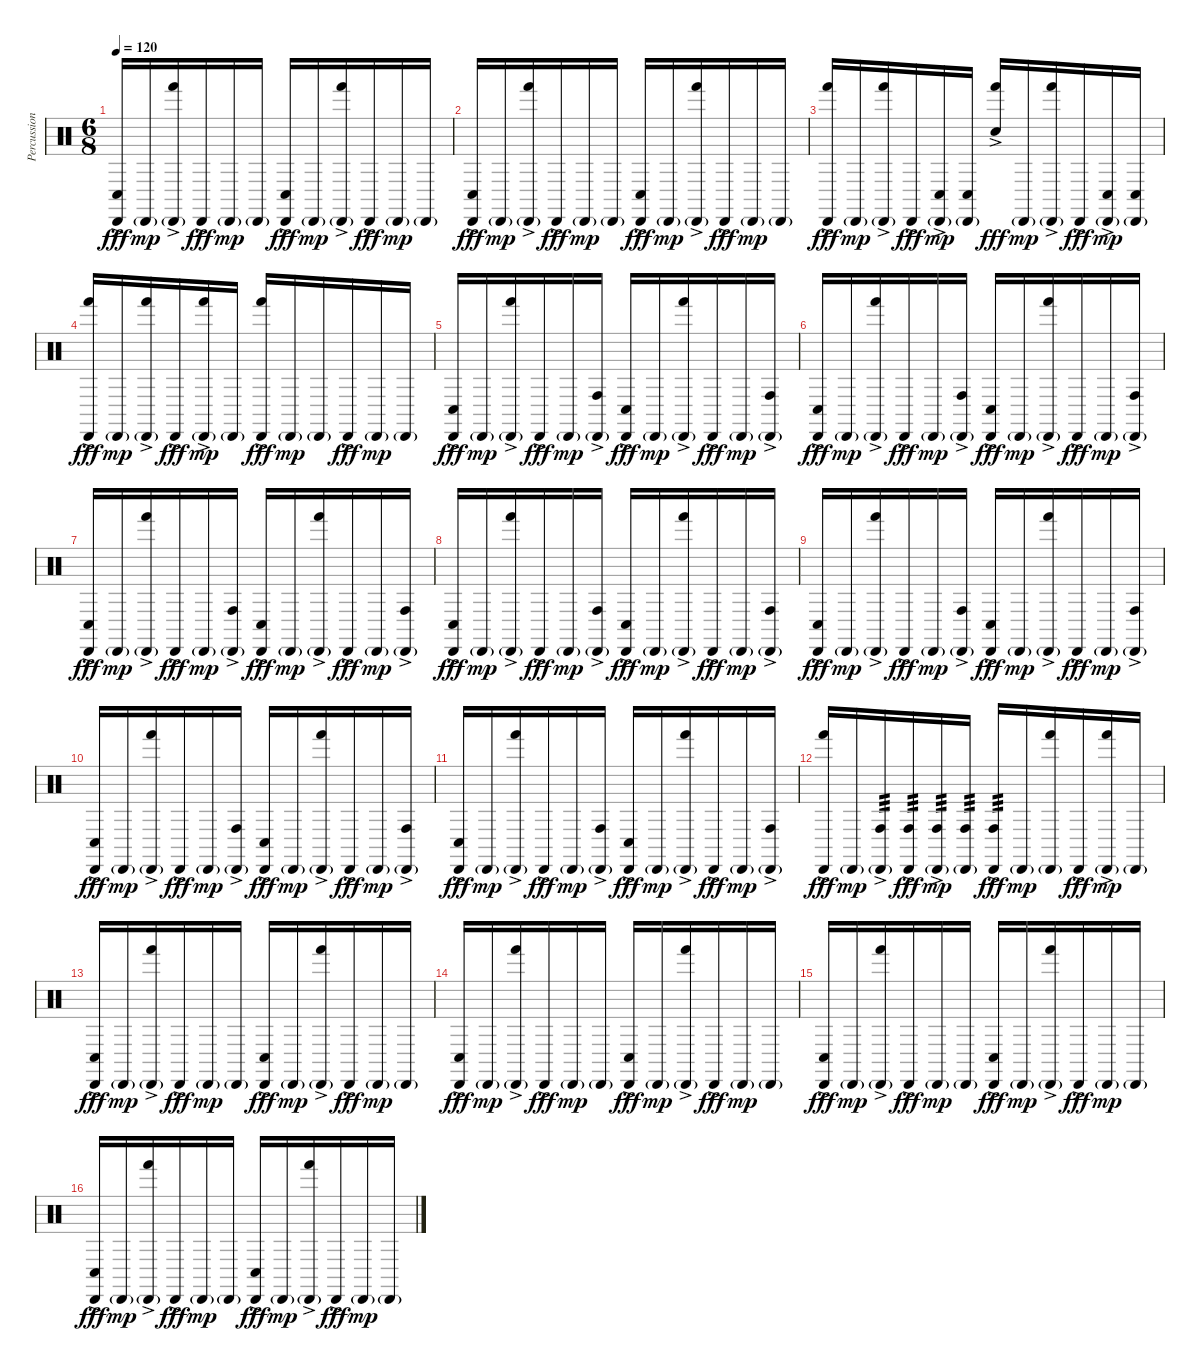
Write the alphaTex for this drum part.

\track ("Percussion" "Percussion") {instrument percussion}
\staff {score}
\articulation defaults
\ts (6 8)
\tempo 120
\clef neutral
\ks c
("Conga low (hit)"{ac} "Cabasa (hit)"{ac}).16{dy fff} "Cabasa (hit)"{g}.16{dy mp} ("Hand (hit)"{ac} "Cabasa (hit)"{g}).16 "Cabasa (hit)"{ac}.16{dy fff} "Cabasa (hit)"{g}.16{dy mp} "Cabasa (hit)"{g}.16 ("Conga low (hit)"{ac} "Cabasa (hit)"{ac}).16{dy fff} "Cabasa (hit)"{g}.16{dy mp} ("Hand (hit)"{ac} "Cabasa (hit)"{g}).16 "Cabasa (hit)"{ac}.16{dy fff} "Cabasa (hit)"{g}.16{dy mp} "Cabasa (hit)"{g}.16 |
("Conga low (hit)"{ac} "Cabasa (hit)"{ac}).16{dy fff} "Cabasa (hit)"{g}.16{dy mp} ("Hand (hit)"{ac} "Cabasa (hit)"{g}).16 "Cabasa (hit)"{ac}.16{dy fff} "Cabasa (hit)"{g}.16{dy mp} "Cabasa (hit)"{g}.16 ("Conga low (hit)"{ac} "Cabasa (hit)"{ac}).16{dy fff} "Cabasa (hit)"{g}.16{dy mp} ("Hand (hit)"{ac} "Cabasa (hit)"{g}).16 "Cabasa (hit)"{ac}.16{dy fff} "Cabasa (hit)"{g}.16{dy mp} "Cabasa (hit)"{g}.16 |
("Hand (hit)"{ac} "Cabasa (hit)"{ac}).16{dy fff} "Cabasa (hit)"{g}.16{dy mp} ("Hand (hit)"{ac} "Cabasa (hit)"{g}).16 "Cabasa (hit)"{ac}.16{dy fff} ("Conga low (hit)"{ac} "Cabasa (hit)"{g}).16{dy mp} ("Conga low (hit)" "Cabasa (hit)"{g}).16 ("Hand (hit)"{ac} "Snare (hit)"{ac}).16{dy fff} "Cabasa (hit)"{g}.16{dy mp} ("Hand (hit)"{ac} "Cabasa (hit)"{g}).16 "Cabasa (hit)"{ac}.16{dy fff} ("Conga low (hit)"{ac} "Cabasa (hit)"{g}).16{dy mp} ("Conga low (hit)" "Cabasa (hit)"{g}).16 |
("Hand (hit)"{ac} "Cabasa (hit)"{ac}).16{dy fff} "Cabasa (hit)"{g}.16{dy mp} ("Hand (hit)"{ac} "Cabasa (hit)"{g}).16 "Cabasa (hit)"{ac}.16{dy fff} ("Hand (hit)"{ac} "Cabasa (hit)"{g}).16{dy mp} "Cabasa (hit)"{g}.16 ("Hand (hit)"{ac} "Cabasa (hit)"{ac}).16{dy fff} "Cabasa (hit)"{g}.16{dy mp} "Cabasa (hit)"{g}.16 "Cabasa (hit)"{ac}.16{dy fff} "Cabasa (hit)"{g}.16{dy mp} "Cabasa (hit)"{g}.16 |
("Conga low (hit)"{ac} "Cabasa (hit)"{ac}).16{dy fff} "Cabasa (hit)"{g}.16{dy mp} ("Hand (hit)"{ac} "Cabasa (hit)"{g}).16 "Cabasa (hit)"{ac}.16{dy fff} "Cabasa (hit)"{g}.16{dy mp} ("Conga high (hit)"{ac} "Cabasa (hit)"{g}).16 ("Conga low (hit)"{ac} "Cabasa (hit)"{ac}).16{dy fff} "Cabasa (hit)"{g}.16{dy mp} ("Hand (hit)"{ac} "Cabasa (hit)"{g}).16 "Cabasa (hit)"{ac}.16{dy fff} "Cabasa (hit)"{g}.16{dy mp} ("Conga high (hit)"{ac} "Cabasa (hit)"{g}).16 |
("Conga low (hit)"{ac} "Cabasa (hit)"{ac}).16{dy fff} "Cabasa (hit)"{g}.16{dy mp} ("Hand (hit)"{ac} "Cabasa (hit)"{g}).16 "Cabasa (hit)"{ac}.16{dy fff} "Cabasa (hit)"{g}.16{dy mp} ("Conga high (hit)"{ac} "Cabasa (hit)"{g}).16 ("Conga low (hit)"{ac} "Cabasa (hit)"{ac}).16{dy fff} "Cabasa (hit)"{g}.16{dy mp} ("Hand (hit)"{ac} "Cabasa (hit)"{g}).16 "Cabasa (hit)"{ac}.16{dy fff} "Cabasa (hit)"{g}.16{dy mp} ("Conga high (hit)"{ac} "Cabasa (hit)"{g}).16 |
("Conga low (hit)"{ac} "Cabasa (hit)"{ac}).16{dy fff} "Cabasa (hit)"{g}.16{dy mp} ("Hand (hit)"{ac} "Cabasa (hit)"{g}).16 "Cabasa (hit)"{ac}.16{dy fff} "Cabasa (hit)"{g}.16{dy mp} ("Conga high (hit)"{ac} "Cabasa (hit)"{g}).16 ("Conga low (hit)"{ac} "Cabasa (hit)"{ac}).16{dy fff} "Cabasa (hit)"{g}.16{dy mp} ("Hand (hit)"{ac} "Cabasa (hit)"{g}).16 "Cabasa (hit)"{ac}.16{dy fff} "Cabasa (hit)"{g}.16{dy mp} ("Conga high (hit)"{ac} "Cabasa (hit)"{g}).16 |
("Conga low (hit)"{ac} "Cabasa (hit)"{ac}).16{dy fff} "Cabasa (hit)"{g}.16{dy mp} ("Hand (hit)"{ac} "Cabasa (hit)"{g}).16 "Cabasa (hit)"{ac}.16{dy fff} "Cabasa (hit)"{g}.16{dy mp} ("Conga high (hit)"{ac} "Cabasa (hit)"{g}).16 ("Conga low (hit)"{ac} "Cabasa (hit)"{ac}).16{dy fff} "Cabasa (hit)"{g}.16{dy mp} ("Hand (hit)"{ac} "Cabasa (hit)"{g}).16 "Cabasa (hit)"{ac}.16{dy fff} "Cabasa (hit)"{g}.16{dy mp} ("Conga high (hit)"{ac} "Cabasa (hit)"{g}).16 |
("Conga low (hit)"{ac} "Cabasa (hit)"{ac}).16{dy fff} "Cabasa (hit)"{g}.16{dy mp} ("Hand (hit)"{ac} "Cabasa (hit)"{g}).16 "Cabasa (hit)"{ac}.16{dy fff} "Cabasa (hit)"{g}.16{dy mp} ("Conga high (hit)"{ac} "Cabasa (hit)"{g}).16 ("Conga low (hit)"{ac} "Cabasa (hit)"{ac}).16{dy fff} "Cabasa (hit)"{g}.16{dy mp} ("Hand (hit)"{ac} "Cabasa (hit)"{g}).16 "Cabasa (hit)"{ac}.16{dy fff} "Cabasa (hit)"{g}.16{dy mp} ("Conga high (hit)"{ac} "Cabasa (hit)"{g}).16 |
("Conga low (hit)"{ac} "Cabasa (hit)"{ac}).16{dy fff} "Cabasa (hit)"{g}.16{dy mp} ("Hand (hit)"{ac} "Cabasa (hit)"{g}).16 "Cabasa (hit)"{ac}.16{dy fff} "Cabasa (hit)"{g}.16{dy mp} ("Conga high (hit)"{ac} "Cabasa (hit)"{g}).16 ("Conga low (hit)"{ac} "Cabasa (hit)"{ac}).16{dy fff} "Cabasa (hit)"{g}.16{dy mp} ("Hand (hit)"{ac} "Cabasa (hit)"{g}).16 "Cabasa (hit)"{ac}.16{dy fff} "Cabasa (hit)"{g}.16{dy mp} ("Conga high (hit)"{ac} "Cabasa (hit)"{g}).16 |
("Conga low (hit)"{ac} "Cabasa (hit)"{ac}).16{dy fff} "Cabasa (hit)"{g}.16{dy mp} ("Hand (hit)"{ac} "Cabasa (hit)"{g}).16 "Cabasa (hit)"{ac}.16{dy fff} "Cabasa (hit)"{g}.16{dy mp} ("Conga high (hit)"{ac} "Cabasa (hit)"{g}).16 ("Conga low (hit)"{ac} "Cabasa (hit)"{ac}).16{dy fff} "Cabasa (hit)"{g}.16{dy mp} ("Hand (hit)"{ac} "Cabasa (hit)"{g}).16 "Cabasa (hit)"{ac}.16{dy fff} "Cabasa (hit)"{g}.16{dy mp} ("Conga high (hit)"{ac} "Cabasa (hit)"{g}).16 |
("Hand (hit)"{ac} "Cabasa (hit)"{ac}).16{dy fff} "Cabasa (hit)"{g}.16{dy mp} ("Conga high (hit)"{ac} "Cabasa (hit)"{g}).16{tp 3} ("Conga high (hit)" "Cabasa (hit)"{ac}).16{tp 3 dy fff} ("Conga high (hit)"{ac} "Cabasa (hit)"{g}).16{tp 3 dy mp} ("Conga high (hit)" "Cabasa (hit)"{g}).16{tp 3} ("Conga high (hit)"{ac} "Cabasa (hit)"{ac}).16{tp 3 dy fff} "Cabasa (hit)"{g}.16{dy mp} ("Hand (hit)" "Cabasa (hit)"{g}).16 "Cabasa (hit)"{ac}.16{dy fff} ("Hand (hit)"{ac} "Cabasa (hit)"{g}).16{dy mp} "Cabasa (hit)"{g}.16 |
("Conga low (hit)"{ac} "Cabasa (hit)"{ac}).16{dy fff} "Cabasa (hit)"{g}.16{dy mp} ("Hand (hit)"{ac} "Cabasa (hit)"{g}).16 "Cabasa (hit)"{ac}.16{dy fff} "Cabasa (hit)"{g}.16{dy mp} "Cabasa (hit)"{g}.16 ("Conga low (hit)"{ac} "Cabasa (hit)"{ac}).16{dy fff} "Cabasa (hit)"{g}.16{dy mp} ("Hand (hit)"{ac} "Cabasa (hit)"{g}).16 "Cabasa (hit)"{ac}.16{dy fff} "Cabasa (hit)"{g}.16{dy mp} "Cabasa (hit)"{g}.16 |
("Conga low (hit)"{ac} "Cabasa (hit)"{ac}).16{dy fff} "Cabasa (hit)"{g}.16{dy mp} ("Hand (hit)"{ac} "Cabasa (hit)"{g}).16 "Cabasa (hit)"{ac}.16{dy fff} "Cabasa (hit)"{g}.16{dy mp} "Cabasa (hit)"{g}.16 ("Conga low (hit)"{ac} "Cabasa (hit)"{ac}).16{dy fff} "Cabasa (hit)"{g}.16{dy mp} ("Hand (hit)"{ac} "Cabasa (hit)"{g}).16 "Cabasa (hit)"{ac}.16{dy fff} "Cabasa (hit)"{g}.16{dy mp} "Cabasa (hit)"{g}.16 |
("Conga low (hit)"{ac} "Cabasa (hit)"{ac}).16{dy fff} "Cabasa (hit)"{g}.16{dy mp} ("Hand (hit)"{ac} "Cabasa (hit)"{g}).16 "Cabasa (hit)"{ac}.16{dy fff} "Cabasa (hit)"{g}.16{dy mp} "Cabasa (hit)"{g}.16 ("Conga low (hit)"{ac} "Cabasa (hit)"{ac}).16{dy fff} "Cabasa (hit)"{g}.16{dy mp} ("Hand (hit)"{ac} "Cabasa (hit)"{g}).16 "Cabasa (hit)"{ac}.16{dy fff} "Cabasa (hit)"{g}.16{dy mp} "Cabasa (hit)"{g}.16 |
("Conga low (hit)"{ac} "Cabasa (hit)"{ac}).16{dy fff} "Cabasa (hit)"{g}.16{dy mp} ("Hand (hit)"{ac} "Cabasa (hit)"{g}).16 "Cabasa (hit)"{ac}.16{dy fff} "Cabasa (hit)"{g}.16{dy mp} "Cabasa (hit)"{g}.16 ("Conga low (hit)"{ac} "Cabasa (hit)"{ac}).16{dy fff} "Cabasa (hit)"{g}.16{dy mp} ("Hand (hit)"{ac} "Cabasa (hit)"{g}).16 "Cabasa (hit)"{ac}.16{dy fff} "Cabasa (hit)"{g}.16{dy mp} "Cabasa (hit)"{g}.16
